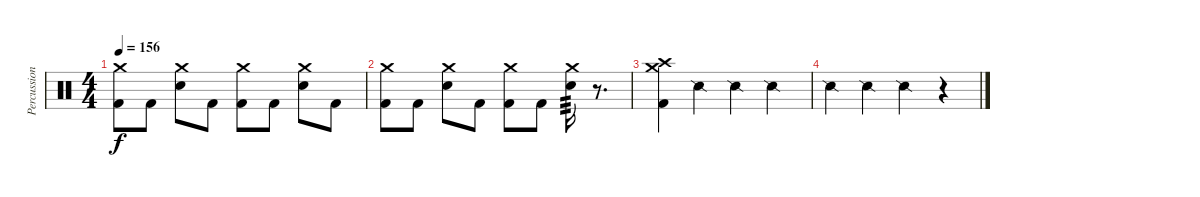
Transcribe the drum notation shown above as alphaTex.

\track ("Percussion" "Percussion") {instrument percussion}
\staff {score}
\articulation defaults
\ts (4 4)
\tempo 156
\clef neutral
\ks c
("Crash medium (hit)" "Kick (hit) 2").8{dy f} "Kick (hit) 2".8 ("Crash medium (hit)" "Electric Snare (hit)").8 "Kick (hit) 2".8 ("Crash medium (hit)" "Kick (hit) 2").8 "Kick (hit) 2".8 ("Crash medium (hit)" "Electric Snare (hit)").8 "Kick (hit) 2".8 |
("Crash medium (hit)" "Kick (hit) 2").8 "Kick (hit) 2".8 ("Crash medium (hit)" "Electric Snare (hit)").8 "Kick (hit) 2".8 ("Crash medium (hit)" "Kick (hit) 2").8 "Kick (hit) 2".8 ("Crash medium (hit)" "Electric Snare (hit)").16{tp 3} r.8{d} |
("Crash medium (hit)" "Crash high (hit)" "Kick (hit) 2").4 "Snare (side stick) 2".4{volume 3} "Snare (side stick) 2".4{volume 12} "Snare (side stick) 2".4 |
"Snare (side stick) 2".4 "Snare (side stick) 2".4 "Snare (side stick) 2".4 r.4
